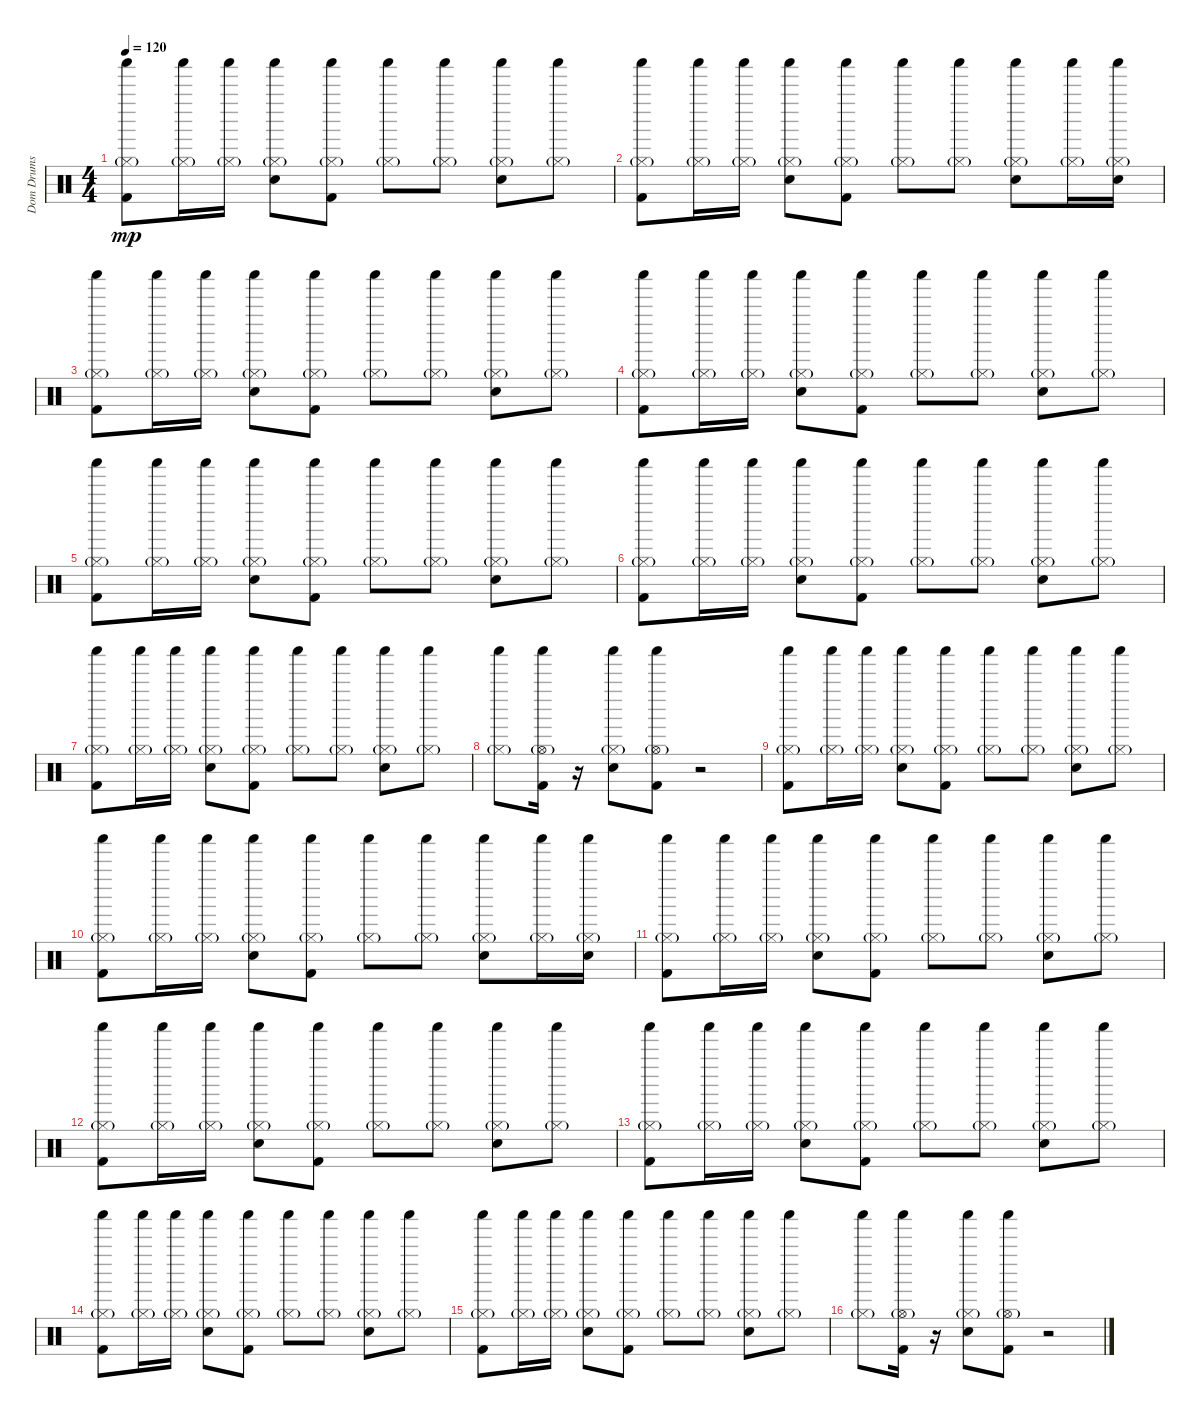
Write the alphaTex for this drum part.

\track ("Dom Drums" "Dom Drums") {instrument percussion}
\staff {score}
\articulation defaults
\ts (4 4)
\tempo 120
\clef neutral
\ks c
("Shaker (hit)" "Hi-Hat (closed)"{g} "Kick (hit) 2").8{dy mp} ("Shaker (hit)" "Hi-Hat (closed)"{g}).16 ("Shaker (hit)" "Hi-Hat (closed)"{g}).16 ("Shaker (hit)" "Hi-Hat (closed)"{g} "Electric Snare (hit)").8 ("Shaker (hit)" "Hi-Hat (closed)"{g} "Kick (hit) 2").8 ("Shaker (hit)" "Hi-Hat (closed)"{g}).8 ("Shaker (hit)" "Hi-Hat (closed)"{g}).8 ("Shaker (hit)" "Hi-Hat (closed)"{g} "Electric Snare (hit)").8 ("Shaker (hit)" "Hi-Hat (closed)"{g}).8 |
("Shaker (hit)" "Hi-Hat (closed)"{g} "Kick (hit) 2").8 ("Shaker (hit)" "Hi-Hat (closed)"{g}).16 ("Shaker (hit)" "Hi-Hat (closed)"{g}).16 ("Shaker (hit)" "Hi-Hat (closed)"{g} "Electric Snare (hit)").8 ("Shaker (hit)" "Hi-Hat (closed)"{g} "Kick (hit) 2").8 ("Shaker (hit)" "Hi-Hat (closed)"{g}).8 ("Shaker (hit)" "Hi-Hat (closed)"{g}).8 ("Shaker (hit)" "Hi-Hat (closed)"{g} "Electric Snare (hit)").8 ("Shaker (hit)" "Hi-Hat (closed)"{g}).16 ("Shaker (hit)" "Hi-Hat (closed)"{g} "Electric Snare (hit)").16 |
("Shaker (hit)" "Hi-Hat (closed)"{g} "Kick (hit) 2").8 ("Shaker (hit)" "Hi-Hat (closed)"{g}).16 ("Shaker (hit)" "Hi-Hat (closed)"{g}).16 ("Shaker (hit)" "Hi-Hat (closed)"{g} "Electric Snare (hit)").8 ("Shaker (hit)" "Hi-Hat (closed)"{g} "Kick (hit) 2").8 ("Shaker (hit)" "Hi-Hat (closed)"{g}).8 ("Shaker (hit)" "Hi-Hat (closed)"{g}).8 ("Shaker (hit)" "Hi-Hat (closed)"{g} "Electric Snare (hit)").8 ("Shaker (hit)" "Hi-Hat (closed)"{g}).8 |
("Shaker (hit)" "Hi-Hat (closed)"{g} "Kick (hit) 2").8 ("Shaker (hit)" "Hi-Hat (closed)"{g}).16 ("Shaker (hit)" "Hi-Hat (closed)"{g}).16 ("Shaker (hit)" "Hi-Hat (closed)"{g} "Electric Snare (hit)").8 ("Shaker (hit)" "Hi-Hat (closed)"{g} "Kick (hit) 2").8 ("Shaker (hit)" "Hi-Hat (closed)"{g}).8 ("Shaker (hit)" "Hi-Hat (closed)"{g}).8 ("Shaker (hit)" "Hi-Hat (closed)"{g} "Electric Snare (hit)").8 ("Shaker (hit)" "Hi-Hat (closed)"{g}).8 |
("Shaker (hit)" "Hi-Hat (closed)"{g} "Kick (hit) 2").8 ("Shaker (hit)" "Hi-Hat (closed)"{g}).16 ("Shaker (hit)" "Hi-Hat (closed)"{g}).16 ("Shaker (hit)" "Hi-Hat (closed)"{g} "Electric Snare (hit)").8 ("Shaker (hit)" "Hi-Hat (closed)"{g} "Kick (hit) 2").8 ("Shaker (hit)" "Hi-Hat (closed)"{g}).8 ("Shaker (hit)" "Hi-Hat (closed)"{g}).8 ("Shaker (hit)" "Hi-Hat (closed)"{g} "Electric Snare (hit)").8 ("Shaker (hit)" "Hi-Hat (closed)"{g}).8 |
("Shaker (hit)" "Hi-Hat (closed)"{g} "Kick (hit) 2").8 ("Shaker (hit)" "Hi-Hat (closed)"{g}).16 ("Shaker (hit)" "Hi-Hat (closed)"{g}).16 ("Shaker (hit)" "Hi-Hat (closed)"{g} "Electric Snare (hit)").8 ("Shaker (hit)" "Hi-Hat (closed)"{g} "Kick (hit) 2").8 ("Shaker (hit)" "Hi-Hat (closed)"{g}).8 ("Shaker (hit)" "Hi-Hat (closed)"{g}).8 ("Shaker (hit)" "Hi-Hat (closed)"{g} "Electric Snare (hit)").8 ("Shaker (hit)" "Hi-Hat (closed)"{g}).8 |
("Shaker (hit)" "Hi-Hat (closed)"{g} "Kick (hit) 2").8 ("Shaker (hit)" "Hi-Hat (closed)"{g}).16 ("Shaker (hit)" "Hi-Hat (closed)"{g}).16 ("Shaker (hit)" "Hi-Hat (closed)"{g} "Electric Snare (hit)").8 ("Shaker (hit)" "Hi-Hat (closed)"{g} "Kick (hit) 2").8 ("Shaker (hit)" "Hi-Hat (closed)"{g}).8 ("Shaker (hit)" "Hi-Hat (closed)"{g}).8 ("Shaker (hit)" "Hi-Hat (closed)"{g} "Electric Snare (hit)").8 ("Shaker (hit)" "Hi-Hat (closed)"{g}).8 |
("Shaker (hit)" "Hi-Hat (closed)"{g}).8 ("Shaker (hit)" "Hi-Hat (open)"{g} "Kick (hit) 2").16 r.16 ("Shaker (hit)" "Hi-Hat (closed)"{g} "Electric Snare (hit)").8 ("Shaker (hit)" "Hi-Hat (open)"{g} "Kick (hit) 2").8 r.2 |
("Shaker (hit)" "Hi-Hat (closed)"{g} "Kick (hit) 2").8 ("Shaker (hit)" "Hi-Hat (closed)"{g}).16 ("Shaker (hit)" "Hi-Hat (closed)"{g}).16 ("Shaker (hit)" "Hi-Hat (closed)"{g} "Electric Snare (hit)").8 ("Shaker (hit)" "Hi-Hat (closed)"{g} "Kick (hit) 2").8 ("Shaker (hit)" "Hi-Hat (closed)"{g}).8 ("Shaker (hit)" "Hi-Hat (closed)"{g}).8 ("Shaker (hit)" "Hi-Hat (closed)"{g} "Electric Snare (hit)").8 ("Shaker (hit)" "Hi-Hat (closed)"{g}).8 |
("Shaker (hit)" "Hi-Hat (closed)"{g} "Kick (hit) 2").8 ("Shaker (hit)" "Hi-Hat (closed)"{g}).16 ("Shaker (hit)" "Hi-Hat (closed)"{g}).16 ("Shaker (hit)" "Hi-Hat (closed)"{g} "Electric Snare (hit)").8 ("Shaker (hit)" "Hi-Hat (closed)"{g} "Kick (hit) 2").8 ("Shaker (hit)" "Hi-Hat (closed)"{g}).8 ("Shaker (hit)" "Hi-Hat (closed)"{g}).8 ("Shaker (hit)" "Hi-Hat (closed)"{g} "Electric Snare (hit)").8 ("Shaker (hit)" "Hi-Hat (closed)"{g}).16 ("Shaker (hit)" "Hi-Hat (closed)"{g} "Electric Snare (hit)").16 |
("Shaker (hit)" "Hi-Hat (closed)"{g} "Kick (hit) 2").8 ("Shaker (hit)" "Hi-Hat (closed)"{g}).16 ("Shaker (hit)" "Hi-Hat (closed)"{g}).16 ("Shaker (hit)" "Hi-Hat (closed)"{g} "Electric Snare (hit)").8 ("Shaker (hit)" "Hi-Hat (closed)"{g} "Kick (hit) 2").8 ("Shaker (hit)" "Hi-Hat (closed)"{g}).8 ("Shaker (hit)" "Hi-Hat (closed)"{g}).8 ("Shaker (hit)" "Hi-Hat (closed)"{g} "Electric Snare (hit)").8 ("Shaker (hit)" "Hi-Hat (closed)"{g}).8 |
("Shaker (hit)" "Hi-Hat (closed)"{g} "Kick (hit) 2").8 ("Shaker (hit)" "Hi-Hat (closed)"{g}).16 ("Shaker (hit)" "Hi-Hat (closed)"{g}).16 ("Shaker (hit)" "Hi-Hat (closed)"{g} "Electric Snare (hit)").8 ("Shaker (hit)" "Hi-Hat (closed)"{g} "Kick (hit) 2").8 ("Shaker (hit)" "Hi-Hat (closed)"{g}).8 ("Shaker (hit)" "Hi-Hat (closed)"{g}).8 ("Shaker (hit)" "Hi-Hat (closed)"{g} "Electric Snare (hit)").8 ("Shaker (hit)" "Hi-Hat (closed)"{g}).8 |
("Shaker (hit)" "Hi-Hat (closed)"{g} "Kick (hit) 2").8 ("Shaker (hit)" "Hi-Hat (closed)"{g}).16 ("Shaker (hit)" "Hi-Hat (closed)"{g}).16 ("Shaker (hit)" "Hi-Hat (closed)"{g} "Electric Snare (hit)").8 ("Shaker (hit)" "Hi-Hat (closed)"{g} "Kick (hit) 2").8 ("Shaker (hit)" "Hi-Hat (closed)"{g}).8 ("Shaker (hit)" "Hi-Hat (closed)"{g}).8 ("Shaker (hit)" "Hi-Hat (closed)"{g} "Electric Snare (hit)").8 ("Shaker (hit)" "Hi-Hat (closed)"{g}).8 |
("Shaker (hit)" "Hi-Hat (closed)"{g} "Kick (hit) 2").8 ("Shaker (hit)" "Hi-Hat (closed)"{g}).16 ("Shaker (hit)" "Hi-Hat (closed)"{g}).16 ("Shaker (hit)" "Hi-Hat (closed)"{g} "Electric Snare (hit)").8 ("Shaker (hit)" "Hi-Hat (closed)"{g} "Kick (hit) 2").8 ("Shaker (hit)" "Hi-Hat (closed)"{g}).8 ("Shaker (hit)" "Hi-Hat (closed)"{g}).8 ("Shaker (hit)" "Hi-Hat (closed)"{g} "Electric Snare (hit)").8 ("Shaker (hit)" "Hi-Hat (closed)"{g}).8 |
("Shaker (hit)" "Hi-Hat (closed)"{g} "Kick (hit) 2").8 ("Shaker (hit)" "Hi-Hat (closed)"{g}).16 ("Shaker (hit)" "Hi-Hat (closed)"{g}).16 ("Shaker (hit)" "Hi-Hat (closed)"{g} "Electric Snare (hit)").8 ("Shaker (hit)" "Hi-Hat (closed)"{g} "Kick (hit) 2").8 ("Shaker (hit)" "Hi-Hat (closed)"{g}).8 ("Shaker (hit)" "Hi-Hat (closed)"{g}).8 ("Shaker (hit)" "Hi-Hat (closed)"{g} "Electric Snare (hit)").8 ("Shaker (hit)" "Hi-Hat (closed)"{g}).8 |
("Shaker (hit)" "Hi-Hat (closed)"{g}).8 ("Shaker (hit)" "Hi-Hat (open)"{g} "Kick (hit) 2").16 r.16 ("Shaker (hit)" "Hi-Hat (closed)"{g} "Electric Snare (hit)").8 ("Shaker (hit)" "Hi-Hat (open)"{g} "Kick (hit) 2").8 r.2
